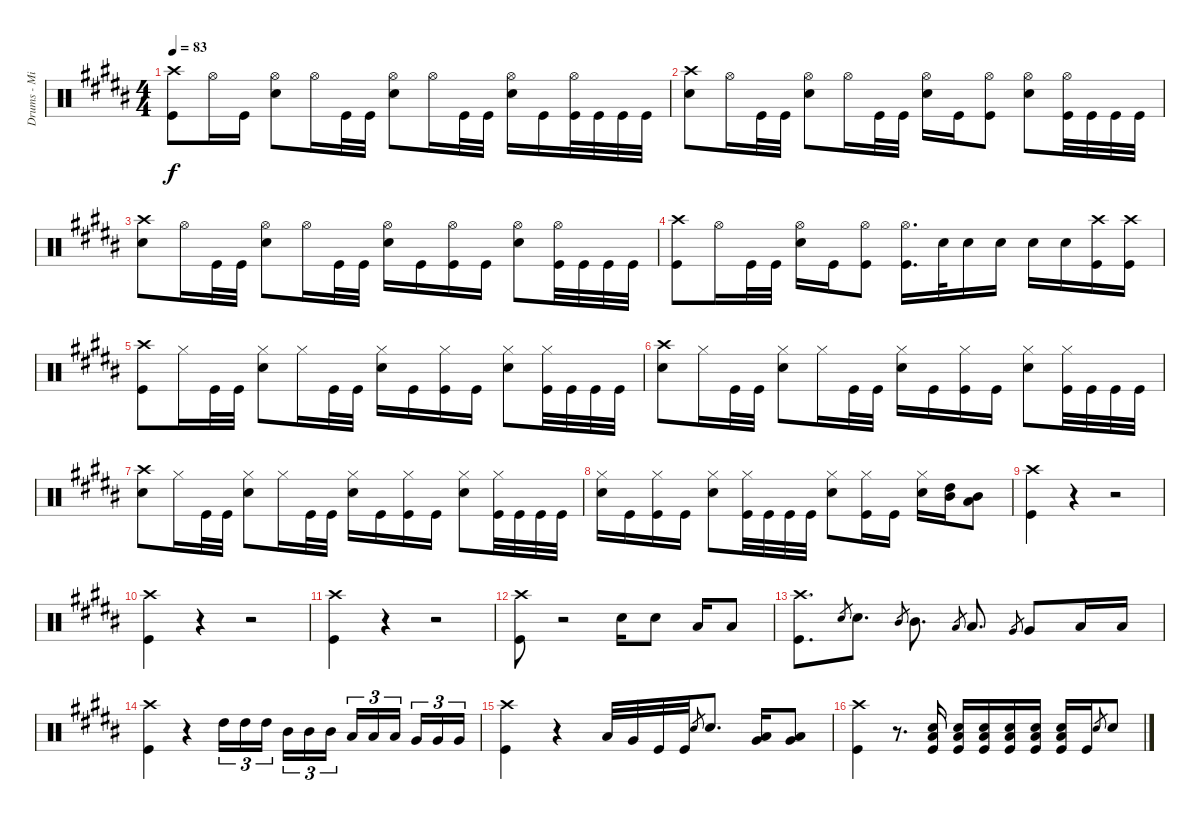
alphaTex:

\track ("Drums - Mike Portnoy" "Drums - Mi") {instrument percussion}
\staff {score}
\articulation defaults
\ts (4 4)
\tempo 83
\clef neutral
\ks b
("Crash high (hit)" "Kick (hit)").8{dy f} "Hi-Hat (open)".16 "Kick (hit)".16 ("Hi-Hat (open)" "Snare (hit) 2").8 "Hi-Hat (open)".16 "Kick (hit)".32 "Kick (hit)".32 ("Hi-Hat (open)" "Snare (hit) 2").8 "Hi-Hat (open)".16 "Kick (hit)".32 "Kick (hit)".32 ("Hi-Hat (open)" "Snare (hit) 2").16 "Kick (hit)".16 ("Hi-Hat (open)" "Kick (hit)").32 "Kick (hit)".32 "Kick (hit)".32 "Kick (hit)".32 |
("Crash high (hit)" "Snare (hit) 2").8 "Hi-Hat (open)".16 "Kick (hit)".32 "Kick (hit)".32 ("Hi-Hat (open)" "Snare (hit) 2").8 "Hi-Hat (open)".16 "Kick (hit)".32 "Kick (hit)".32 ("Hi-Hat (open)" "Snare (hit) 2").16 "Kick (hit)".16 ("Hi-Hat (open)" "Kick (hit)").8 ("Hi-Hat (open)" "Snare (hit) 2").8 ("Hi-Hat (open)" "Kick (hit)").32 "Kick (hit)".32 "Kick (hit)".32 "Kick (hit)".32 |
("Crash high (hit)" "Snare (hit) 2").8 "Hi-Hat (open)".16 "Kick (hit)".32 "Kick (hit)".32 ("Hi-Hat (open)" "Snare (hit) 2").8 "Hi-Hat (open)".16 "Kick (hit)".32 "Kick (hit)".32 ("Hi-Hat (open)" "Snare (hit) 2").16 "Kick (hit)".16 ("Hi-Hat (open)" "Kick (hit)").16 "Kick (hit)".16 ("Hi-Hat (open)" "Snare (hit) 2").8 ("Hi-Hat (open)" "Kick (hit)").32 "Kick (hit)".32 "Kick (hit)".32 "Kick (hit)".32 |
("Crash high (hit)" "Kick (hit)").8 "Hi-Hat (open)".16 "Kick (hit)".32 "Kick (hit)".32 ("Hi-Hat (open)" "Snare (hit) 2").16 "Kick (hit)".16 ("Hi-Hat (open)" "Kick (hit)").8 ("Hi-Hat (open)" "Kick (hit)").16{d} "Snare (hit) 2".32 "Snare (hit) 2".16 "Snare (hit) 2".16 "Snare (hit) 2".16 "Snare (hit) 2".16 ("Crash high (hit)" "Kick (hit)").16 ("Crash high (hit)" "Kick (hit)").16 |
("Crash high (hit)" "Kick (hit)").8 "Hi-Hat (closed)".16 "Kick (hit)".32 "Kick (hit)".32 ("Hi-Hat (closed)" "Snare (hit) 2").8 "Hi-Hat (closed)".16 "Kick (hit)".32 "Kick (hit)".32 ("Hi-Hat (closed)" "Snare (hit) 2").16 "Kick (hit)".16 ("Hi-Hat (closed)" "Kick (hit)").16 "Kick (hit)".16 ("Hi-Hat (closed)" "Snare (hit) 2").8 ("Hi-Hat (closed)" "Kick (hit)").32 "Kick (hit)".32 "Kick (hit)".32 "Kick (hit)".32 |
("Crash high (hit)" "Snare (hit) 2").8 "Hi-Hat (closed)".16 "Kick (hit)".32 "Kick (hit)".32 ("Hi-Hat (closed)" "Snare (hit) 2").8 "Hi-Hat (closed)".16 "Kick (hit)".32 "Kick (hit)".32 ("Hi-Hat (closed)" "Snare (hit) 2").16 "Kick (hit)".16 ("Hi-Hat (closed)" "Kick (hit)").16 "Kick (hit)".16 ("Hi-Hat (closed)" "Snare (hit) 2").8 ("Hi-Hat (closed)" "Kick (hit)").32 "Kick (hit)".32 "Kick (hit)".32 "Kick (hit)".32 |
("Crash high (hit)" "Snare (hit) 2").8 "Hi-Hat (closed)".16 "Kick (hit)".32 "Kick (hit)".32 ("Hi-Hat (closed)" "Snare (hit) 2").8 "Hi-Hat (closed)".16 "Kick (hit)".32 "Kick (hit)".32 ("Hi-Hat (closed)" "Snare (hit) 2").16 "Kick (hit)".16 ("Hi-Hat (closed)" "Kick (hit)").16 "Kick (hit)".16 ("Hi-Hat (closed)" "Snare (hit) 2").8 ("Hi-Hat (closed)" "Kick (hit)").32 "Kick (hit)".32 "Kick (hit)".32 "Kick (hit)".32 |
("Hi-Hat (closed)" "Snare (hit) 2").16 "Kick (hit)".16 ("Hi-Hat (closed)" "Kick (hit)").16 "Kick (hit)".16 ("Hi-Hat (closed)" "Snare (hit) 2").8 ("Hi-Hat (closed)" "Kick (hit)").32 "Kick (hit)".32 "Kick (hit)".32 "Kick (hit)".32 ("Hi-Hat (closed)" "Snare (hit) 2").8 ("Hi-Hat (closed)" "Kick (hit)").16 "Kick (hit)".16 ("Hi-Hat (closed)" "Snare (hit) 2").16 ("High Tom (hit)" "Mid Tom (hit)").16 ("Mid Tom (hit)" "Low Tom (hit)").8 |
("Crash high (hit)" "Kick (hit)").4 r.4 r.2 |
("Crash high (hit)" "Kick (hit)").4 r.4 r.2 |
("Crash high (hit)" "Kick (hit)").4 r.4 r.2 |
("Crash high (hit)" "Kick (hit)").8 r.2 "Snare (hit) 2".16 "Snare (hit) 2".8 "Low Tom (hit)".16 "Low Tom (hit)".8 |
("Crash high (hit)" "Kick (hit)").8{d} "Snare (hit) 2".8{gr} "Snare (hit) 2".8{d} "Mid Tom (hit)".8{gr} "Mid Tom (hit)".8{d} "Low Tom (hit)".8{gr} "Low Tom (hit)".8{d} "Very Low Tom (hit)".8{gr} "Very Low Tom (hit)".8 "Low Floor Tom (hit)".16 "Low Floor Tom (hit)".16 |
("Crash high (hit)" "Kick (hit)").4 r.4 "High Tom (hit)".16{tu (3 2)} "High Tom (hit)".16{tu (3 2)} "High Tom (hit)".16{tu (3 2) beam splitsecondary} "Mid Tom (hit)".16{tu (3 2)} "Mid Tom (hit)".16{tu (3 2)} "Mid Tom (hit)".16{tu (3 2)} "Low Tom (hit)".16{tu (3 2)} "Low Tom (hit)".16{tu (3 2)} "Low Tom (hit)".16{tu (3 2) beam splitsecondary} "Very Low Tom (hit)".16{tu (3 2)} "Very Low Tom (hit)".16{tu (3 2)} "Very Low Tom (hit)".16{tu (3 2)} |
("Crash high (hit)" "Kick (hit)").4 r.4 "Low Floor Tom (hit)".32 "Very Low Tom (hit)".32 "Kick (hit)".32 "Kick (hit)".32 "Snare (hit) 2".8{gr} "Snare (hit) 2".8{d} ("Low Tom (hit)" "Very Low Tom (hit)").16 ("Low Tom (hit)" "Very Low Tom (hit)").8 |
("Crash high (hit)" "Kick (hit)").4 r.8{d} ("Low Floor Tom (hit)" "Snare (hit) 2" "Kick (hit)").16 ("Low Floor Tom (hit)" "Snare (hit) 2" "Kick (hit)").16 ("Low Floor Tom (hit)" "Snare (hit) 2" "Kick (hit)").16 ("Low Floor Tom (hit)" "Snare (hit) 2" "Kick (hit)").16 ("Low Floor Tom (hit)" "Snare (hit) 2" "Kick (hit)").16 ("Low Floor Tom (hit)" "Snare (hit) 2" "Kick (hit)").16 "Kick (hit)".16 "Snare (hit) 2".8{gr} "Snare (hit) 2".8
